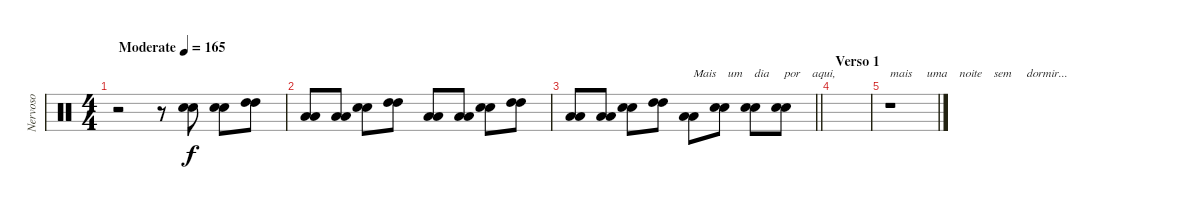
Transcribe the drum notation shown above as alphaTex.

\track ("Nervoso" "Nervoso") {instrument percussion}
\staff {score}
\articulation defaults
\ts (4 4)
\tempo (165 "Moderate")
\clef neutral
\ks c
r.2{dy f} r.8 ("Electric Snare (hit)" "Electric Snare (hit)").8 ("Electric Snare (hit)" "Electric Snare (hit)").8 ("High Tom (hit)" "High Tom (hit)").8 |
("Low Floor Tom (hit)" "Low Floor Tom (hit)").8 ("Low Floor Tom (hit)" "Low Floor Tom (hit)").8 ("Electric Snare (hit)" "Electric Snare (hit)").8 ("High Tom (hit)" "High Tom (hit)").8 ("Low Floor Tom (hit)" "Low Floor Tom (hit)").8 ("Low Floor Tom (hit)" "Low Floor Tom (hit)").8 ("Electric Snare (hit)" "Electric Snare (hit)").8 ("High Tom (hit)" "High Tom (hit)").8 |
\barLineRight lightlight
("Low Floor Tom (hit)" "Low Floor Tom (hit)").8 ("Low Floor Tom (hit)" "Low Floor Tom (hit)").8 ("Electric Snare (hit)" "Electric Snare (hit)").8 ("High Tom (hit)" "High Tom (hit)").8 ("Low Floor Tom (hit)" "Low Floor Tom (hit)").8{txt "Mais    um    dia     por    aqui, "} ("Electric Snare (hit)" "Electric Snare (hit)").8 ("Electric Snare (hit)" "Electric Snare (hit)").8 ("Electric Snare (hit)" "Electric Snare (hit)").8 |
\section ("" "Verso 1")
|
r.1{txt "mais     uma    noite    sem     dormir..."}
